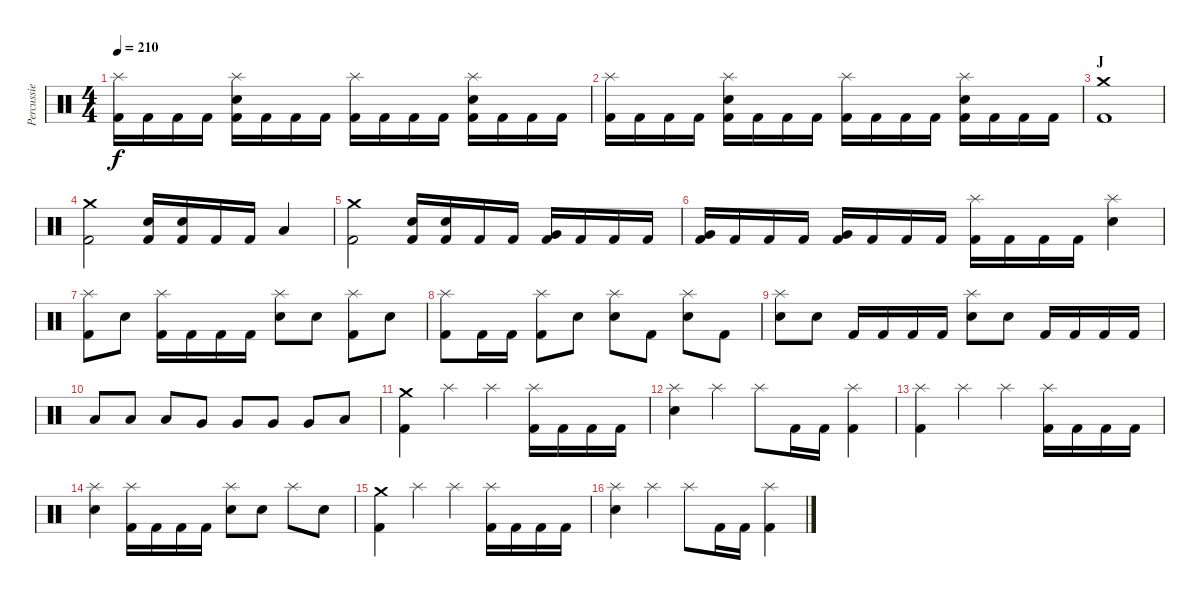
\track ("Percussie" "Percussie") {instrument percussion}
\staff {score}
\articulation defaults
\ts (4 4)
\tempo 210
\clef neutral
\ks c
("Splash (hit)" "Kick (hit) 2").16{dy f} "Kick (hit) 2".16 "Kick (hit) 2".16 "Kick (hit) 2".16 ("Splash (hit)" "Electric Snare (hit)" "Kick (hit) 2").16 "Kick (hit) 2".16 "Kick (hit) 2".16 "Kick (hit) 2".16 ("Splash (hit)" "Kick (hit) 2").16 "Kick (hit) 2".16 "Kick (hit) 2".16 "Kick (hit) 2".16 ("Splash (hit)" "Electric Snare (hit)" "Kick (hit) 2").16 "Kick (hit) 2".16 "Kick (hit) 2".16 "Kick (hit) 2".16 |
("Splash (hit)" "Kick (hit) 2").16 "Kick (hit) 2".16 "Kick (hit) 2".16 "Kick (hit) 2".16 ("Splash (hit)" "Electric Snare (hit)" "Kick (hit) 2").16 "Kick (hit) 2".16 "Kick (hit) 2".16 "Kick (hit) 2".16 ("Splash (hit)" "Kick (hit) 2").16 "Kick (hit) 2".16 "Kick (hit) 2".16 "Kick (hit) 2".16 ("Splash (hit)" "Electric Snare (hit)" "Kick (hit) 2").16 "Kick (hit) 2".16 "Kick (hit) 2".16 "Kick (hit) 2".16 |
\section ("" "J")
("Crash medium (hit)" "Kick (hit) 2").1 |
("Crash medium (hit)" "Kick (hit) 2").2 ("Electric Snare (hit)" "Kick (hit) 2").16 ("Electric Snare (hit)" "Kick (hit) 2").16 "Kick (hit) 2".16 "Kick (hit) 2".16 "Low Floor Tom (hit)".4 |
("Crash medium (hit)" "Kick (hit) 2").2 ("Electric Snare (hit)" "Kick (hit) 2").16 ("Electric Snare (hit)" "Kick (hit) 2").16 "Kick (hit) 2".16 "Kick (hit) 2".16 ("Very Low Tom (hit)" "Kick (hit) 2").16 "Kick (hit) 2".16 "Kick (hit) 2".16 "Kick (hit) 2".16 |
("Very Low Tom (hit)" "Kick (hit) 2").16 "Kick (hit) 2".16 "Kick (hit) 2".16 "Kick (hit) 2".16 ("Very Low Tom (hit)" "Kick (hit) 2").16 "Kick (hit) 2".16 "Kick (hit) 2".16 "Kick (hit) 2".16 ("Splash (hit)" "Kick (hit) 2").16 "Kick (hit) 2".16 "Kick (hit) 2".16 "Kick (hit) 2".16 ("Splash (hit)" "Electric Snare (hit)").4 |
("Splash (hit)" "Kick (hit) 2").8 "Electric Snare (hit)".8 ("Splash (hit)" "Kick (hit) 2").16 "Kick (hit) 2".16 "Kick (hit) 2".16 "Kick (hit) 2".16 ("Splash (hit)" "Electric Snare (hit)").8 "Electric Snare (hit)".8 ("Splash (hit)" "Kick (hit) 2").8 "Electric Snare (hit)".8 |
("Splash (hit)" "Kick (hit) 2").8 "Kick (hit) 2".16 "Kick (hit) 2".16 ("Splash (hit)" "Kick (hit) 2").8 "Electric Snare (hit)".8 ("Splash (hit)" "Electric Snare (hit)").8 "Kick (hit) 2".8 ("Splash (hit)" "Electric Snare (hit)").8 "Kick (hit) 2".8 |
("Splash (hit)" "Electric Snare (hit)").8 "Electric Snare (hit)".8 "Kick (hit) 2".16 "Kick (hit) 2".16 "Kick (hit) 2".16 "Kick (hit) 2".16 ("Splash (hit)" "Electric Snare (hit)").8 "Electric Snare (hit)".8 "Kick (hit) 2".16 "Kick (hit) 2".16 "Kick (hit) 2".16 "Kick (hit) 2".16 |
"Low Tom (hit)".8 "Low Tom (hit)".8 "Low Tom (hit)".8 "Very Low Tom (hit)".8 "Very Low Tom (hit)".8 "Very Low Tom (hit)".8 "Very Low Tom (hit)".8 "Low Floor Tom (hit)".8 |
("Crash medium (hit)" "Kick (hit) 2").4 "Splash (hit)".4 "Splash (hit)".4 ("Splash (hit)" "Kick (hit) 2").16 "Kick (hit) 2".16 "Kick (hit) 2".16 "Kick (hit) 2".16 |
("Splash (hit)" "Electric Snare (hit)").4 "Splash (hit)".4 "Splash (hit)".8 "Kick (hit) 2".16 "Kick (hit) 2".16 ("Splash (hit)" "Kick (hit) 2").4 |
("Splash (hit)" "Kick (hit) 2").4 "Splash (hit)".4 "Splash (hit)".4 ("Splash (hit)" "Kick (hit) 2").16 "Kick (hit) 2".16 "Kick (hit) 2".16 "Kick (hit) 2".16 |
("Splash (hit)" "Electric Snare (hit)").4 ("Splash (hit)" "Kick (hit) 2").16 "Kick (hit) 2".16 "Kick (hit) 2".16 "Kick (hit) 2".16 ("Splash (hit)" "Electric Snare (hit)").8 "Electric Snare (hit)".8 "Splash (hit)".8 "Electric Snare (hit)".8 |
("Crash medium (hit)" "Kick (hit) 2").4 "Splash (hit)".4 "Splash (hit)".4 ("Splash (hit)" "Kick (hit) 2").16 "Kick (hit) 2".16 "Kick (hit) 2".16 "Kick (hit) 2".16 |
("Splash (hit)" "Electric Snare (hit)").4 "Splash (hit)".4 "Splash (hit)".8 "Kick (hit) 2".16 "Kick (hit) 2".16 ("Splash (hit)" "Kick (hit) 2").4
